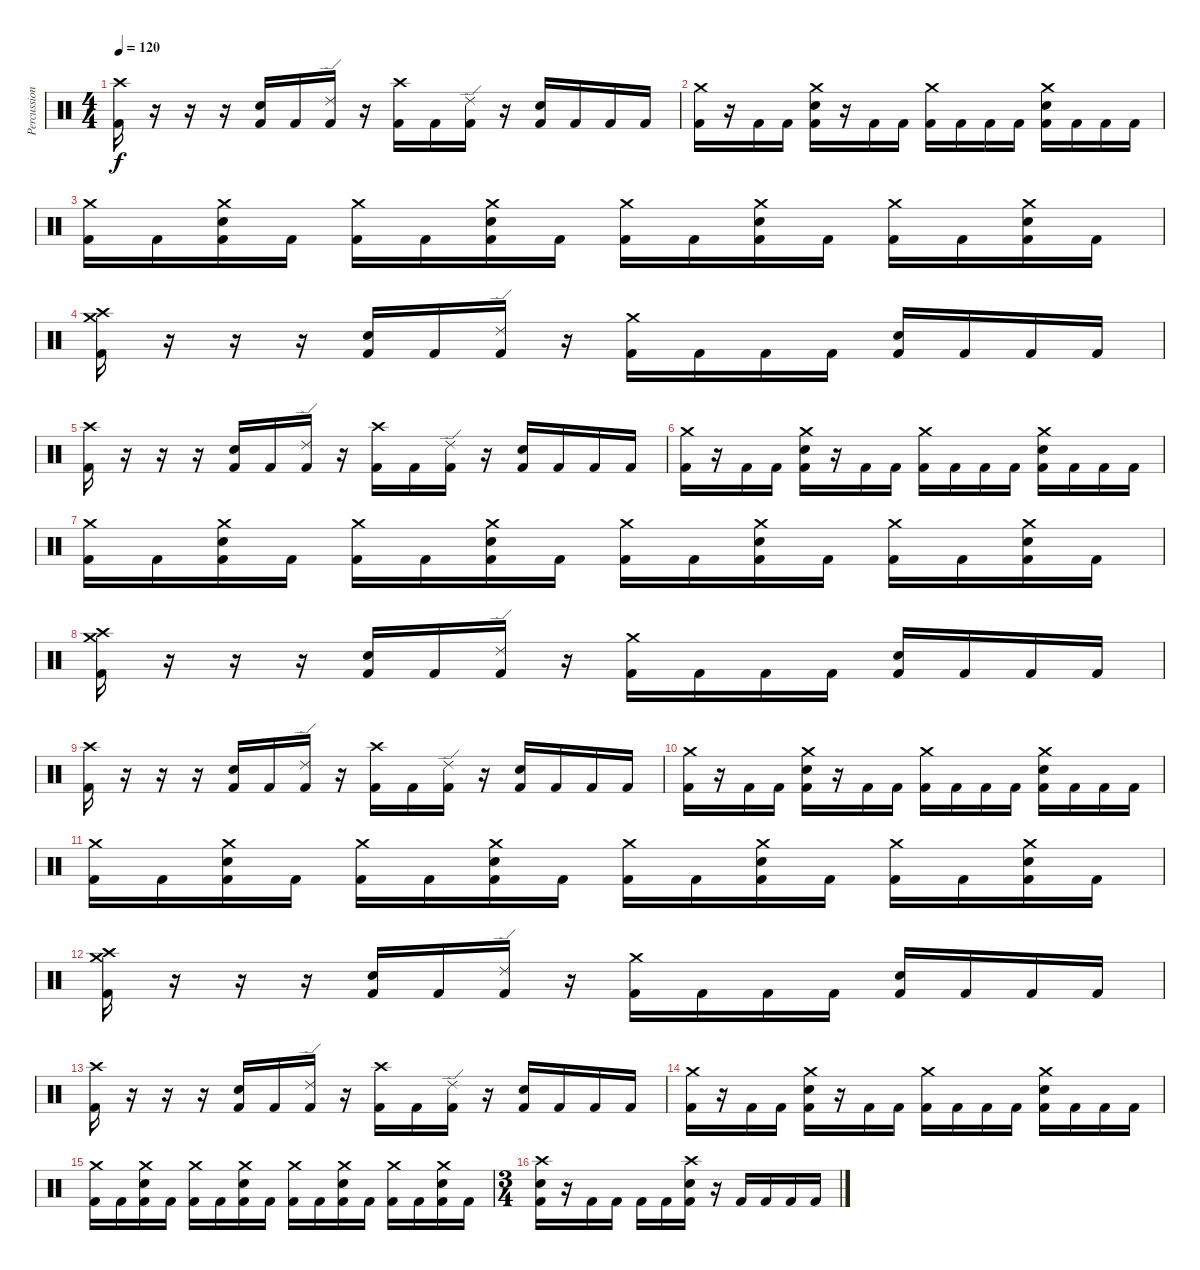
\track ("Percussion" "Percussion") {instrument percussion}
\staff {score}
\articulation defaults
\ts (4 4)
\tempo 120
\clef neutral
\ks c
("Crash high (hit)" "Kick (hit) 2").16{dy f} r.16 r.16 r.16 ("Electric Snare (hit)" "Kick (hit) 2").16 "Kick (hit) 2".16 ("Ride (edge) 2" "Kick (hit) 2").16 r.16 ("Crash high (hit)" "Kick (hit) 2").16 "Kick (hit) 2".16 ("Ride (edge) 2" "Kick (hit) 2").16 r.16 ("Electric Snare (hit)" "Kick (hit) 2").16 "Kick (hit) 2".16 "Kick (hit) 2".16 "Kick (hit) 2".16 |
("Crash medium (hit)" "Kick (hit) 2").16 r.16 "Kick (hit) 2".16 "Kick (hit) 2".16 ("Crash medium (hit)" "Electric Snare (hit)" "Kick (hit) 2").16 r.16 "Kick (hit) 2".16 "Kick (hit) 2".16 ("Crash medium (hit)" "Kick (hit) 2").16 "Kick (hit) 2".16 "Kick (hit) 2".16 "Kick (hit) 2".16 ("Crash medium (hit)" "Electric Snare (hit)" "Kick (hit) 2").16 "Kick (hit) 2".16 "Kick (hit) 2".16 "Kick (hit) 2".16 |
("Crash medium (hit)" "Kick (hit) 2").16 "Kick (hit) 2".16 ("Crash medium (hit)" "Electric Snare (hit)" "Kick (hit) 2").16 "Kick (hit) 2".16 ("Crash medium (hit)" "Kick (hit) 2").16 "Kick (hit) 2".16 ("Crash medium (hit)" "Electric Snare (hit)" "Kick (hit) 2").16 "Kick (hit) 2".16 ("Crash medium (hit)" "Kick (hit) 2").16 "Kick (hit) 2".16 ("Crash medium (hit)" "Electric Snare (hit)" "Kick (hit) 2").16 "Kick (hit) 2".16 ("Crash medium (hit)" "Kick (hit) 2").16 "Kick (hit) 2".16 ("Crash medium (hit)" "Electric Snare (hit)" "Kick (hit) 2").16 "Kick (hit) 2".16 |
("Crash medium (hit)" "Crash high (hit)" "Kick (hit) 2").16 r.16 r.16 r.16 ("Electric Snare (hit)" "Kick (hit) 2").16 "Kick (hit) 2".16 ("Ride (edge) 2" "Kick (hit) 2").16 r.16 ("Crash medium (hit)" "Kick (hit) 2").16 "Kick (hit) 2".16 "Kick (hit) 2".16 "Kick (hit) 2".16 ("Electric Snare (hit)" "Kick (hit) 2").16 "Kick (hit) 2".16 "Kick (hit) 2".16 "Kick (hit) 2".16 |
("Crash high (hit)" "Kick (hit) 2").16 r.16 r.16 r.16 ("Electric Snare (hit)" "Kick (hit) 2").16 "Kick (hit) 2".16 ("Ride (edge) 2" "Kick (hit) 2").16 r.16 ("Crash high (hit)" "Kick (hit) 2").16 "Kick (hit) 2".16 ("Ride (edge) 2" "Kick (hit) 2").16 r.16 ("Electric Snare (hit)" "Kick (hit) 2").16 "Kick (hit) 2".16 "Kick (hit) 2".16 "Kick (hit) 2".16 |
("Crash medium (hit)" "Kick (hit) 2").16 r.16 "Kick (hit) 2".16 "Kick (hit) 2".16 ("Crash medium (hit)" "Electric Snare (hit)" "Kick (hit) 2").16 r.16 "Kick (hit) 2".16 "Kick (hit) 2".16 ("Crash medium (hit)" "Kick (hit) 2").16 "Kick (hit) 2".16 "Kick (hit) 2".16 "Kick (hit) 2".16 ("Crash medium (hit)" "Electric Snare (hit)" "Kick (hit) 2").16 "Kick (hit) 2".16 "Kick (hit) 2".16 "Kick (hit) 2".16 |
("Crash medium (hit)" "Kick (hit) 2").16 "Kick (hit) 2".16 ("Crash medium (hit)" "Electric Snare (hit)" "Kick (hit) 2").16 "Kick (hit) 2".16 ("Crash medium (hit)" "Kick (hit) 2").16 "Kick (hit) 2".16 ("Crash medium (hit)" "Electric Snare (hit)" "Kick (hit) 2").16 "Kick (hit) 2".16 ("Crash medium (hit)" "Kick (hit) 2").16 "Kick (hit) 2".16 ("Crash medium (hit)" "Electric Snare (hit)" "Kick (hit) 2").16 "Kick (hit) 2".16 ("Crash medium (hit)" "Kick (hit) 2").16 "Kick (hit) 2".16 ("Crash medium (hit)" "Electric Snare (hit)" "Kick (hit) 2").16 "Kick (hit) 2".16 |
("Crash medium (hit)" "Crash high (hit)" "Kick (hit) 2").16 r.16 r.16 r.16 ("Electric Snare (hit)" "Kick (hit) 2").16 "Kick (hit) 2".16 ("Ride (edge) 2" "Kick (hit) 2").16 r.16 ("Crash medium (hit)" "Kick (hit) 2").16 "Kick (hit) 2".16 "Kick (hit) 2".16 "Kick (hit) 2".16 ("Electric Snare (hit)" "Kick (hit) 2").16 "Kick (hit) 2".16 "Kick (hit) 2".16 "Kick (hit) 2".16 |
("Crash high (hit)" "Kick (hit) 2").16 r.16 r.16 r.16 ("Electric Snare (hit)" "Kick (hit) 2").16 "Kick (hit) 2".16 ("Ride (edge) 2" "Kick (hit) 2").16 r.16 ("Crash high (hit)" "Kick (hit) 2").16 "Kick (hit) 2".16 ("Ride (edge) 2" "Kick (hit) 2").16 r.16 ("Electric Snare (hit)" "Kick (hit) 2").16 "Kick (hit) 2".16 "Kick (hit) 2".16 "Kick (hit) 2".16 |
("Crash medium (hit)" "Kick (hit) 2").16 r.16 "Kick (hit) 2".16 "Kick (hit) 2".16 ("Crash medium (hit)" "Electric Snare (hit)" "Kick (hit) 2").16 r.16 "Kick (hit) 2".16 "Kick (hit) 2".16 ("Crash medium (hit)" "Kick (hit) 2").16 "Kick (hit) 2".16 "Kick (hit) 2".16 "Kick (hit) 2".16 ("Crash medium (hit)" "Electric Snare (hit)" "Kick (hit) 2").16 "Kick (hit) 2".16 "Kick (hit) 2".16 "Kick (hit) 2".16 |
("Crash medium (hit)" "Kick (hit) 2").16 "Kick (hit) 2".16 ("Crash medium (hit)" "Electric Snare (hit)" "Kick (hit) 2").16 "Kick (hit) 2".16 ("Crash medium (hit)" "Kick (hit) 2").16 "Kick (hit) 2".16 ("Crash medium (hit)" "Electric Snare (hit)" "Kick (hit) 2").16 "Kick (hit) 2".16 ("Crash medium (hit)" "Kick (hit) 2").16 "Kick (hit) 2".16 ("Crash medium (hit)" "Electric Snare (hit)" "Kick (hit) 2").16 "Kick (hit) 2".16 ("Crash medium (hit)" "Kick (hit) 2").16 "Kick (hit) 2".16 ("Crash medium (hit)" "Electric Snare (hit)" "Kick (hit) 2").16 "Kick (hit) 2".16 |
("Crash medium (hit)" "Crash high (hit)" "Kick (hit) 2").16 r.16 r.16 r.16 ("Electric Snare (hit)" "Kick (hit) 2").16 "Kick (hit) 2".16 ("Ride (edge) 2" "Kick (hit) 2").16 r.16 ("Crash medium (hit)" "Kick (hit) 2").16 "Kick (hit) 2".16 "Kick (hit) 2".16 "Kick (hit) 2".16 ("Electric Snare (hit)" "Kick (hit) 2").16 "Kick (hit) 2".16 "Kick (hit) 2".16 "Kick (hit) 2".16 |
("Crash high (hit)" "Kick (hit) 2").16 r.16 r.16 r.16 ("Electric Snare (hit)" "Kick (hit) 2").16 "Kick (hit) 2".16 ("Ride (edge) 2" "Kick (hit) 2").16 r.16 ("Crash high (hit)" "Kick (hit) 2").16 "Kick (hit) 2".16 ("Ride (edge) 2" "Kick (hit) 2").16 r.16 ("Electric Snare (hit)" "Kick (hit) 2").16 "Kick (hit) 2".16 "Kick (hit) 2".16 "Kick (hit) 2".16 |
("Crash medium (hit)" "Kick (hit) 2").16 r.16 "Kick (hit) 2".16 "Kick (hit) 2".16 ("Crash medium (hit)" "Electric Snare (hit)" "Kick (hit) 2").16 r.16 "Kick (hit) 2".16 "Kick (hit) 2".16 ("Crash medium (hit)" "Kick (hit) 2").16 "Kick (hit) 2".16 "Kick (hit) 2".16 "Kick (hit) 2".16 ("Crash medium (hit)" "Electric Snare (hit)" "Kick (hit) 2").16 "Kick (hit) 2".16 "Kick (hit) 2".16 "Kick (hit) 2".16 |
("Crash medium (hit)" "Kick (hit) 2").16 "Kick (hit) 2".16 ("Crash medium (hit)" "Electric Snare (hit)" "Kick (hit) 2").16 "Kick (hit) 2".16 ("Crash medium (hit)" "Kick (hit) 2").16 "Kick (hit) 2".16 ("Crash medium (hit)" "Electric Snare (hit)" "Kick (hit) 2").16 "Kick (hit) 2".16 ("Crash medium (hit)" "Kick (hit) 2").16 "Kick (hit) 2".16 ("Crash medium (hit)" "Electric Snare (hit)" "Kick (hit) 2").16 "Kick (hit) 2".16 ("Crash medium (hit)" "Kick (hit) 2").16 "Kick (hit) 2".16 ("Crash medium (hit)" "Electric Snare (hit)" "Kick (hit) 2").16 "Kick (hit) 2".16 |
\ts (3 4)
("Crash high (hit)" "Electric Snare (hit)" "Kick (hit) 2").16 r.16 "Kick (hit) 2".16 "Kick (hit) 2".16 "Kick (hit) 2".16 "Kick (hit) 2".16 ("Crash high (hit)" "Electric Snare (hit)" "Kick (hit) 2").16 r.16 "Kick (hit) 2".16 "Kick (hit) 2".16 "Kick (hit) 2".16 "Kick (hit) 2".16
